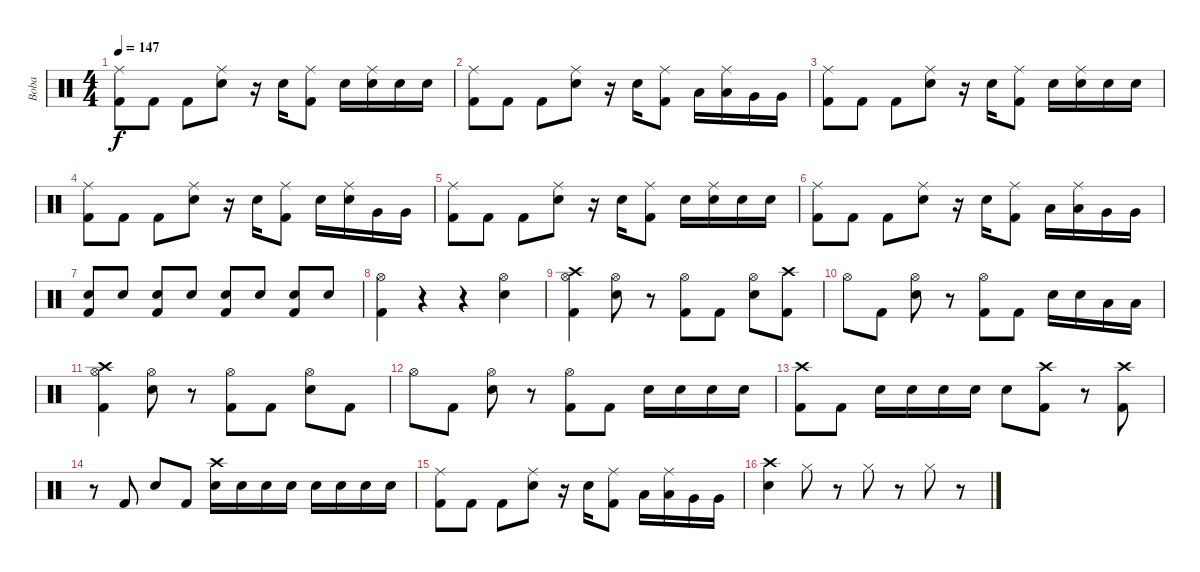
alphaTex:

\track ("Boba" "Boba") {instrument percussion}
\staff {score}
\articulation defaults
\ts (4 4)
\tempo 147
\clef neutral
\ks c
("Ride (middle)" "Kick (hit) 2").8{dy f} "Kick (hit) 2".8 "Kick (hit) 2".8 ("Ride (middle)" "Electric Snare (hit)").8 r.16 "Electric Snare (hit)".16 ("Ride (middle)" "Kick (hit) 2").8 "Electric Snare (hit)".16 ("Ride (middle)" "Electric Snare (hit)").16 "Electric Snare (hit)".16 "Electric Snare (hit)".16 |
("Ride (middle)" "Kick (hit) 2").8 "Kick (hit) 2".8 "Kick (hit) 2".8 ("Ride (middle)" "Electric Snare (hit)").8 r.16 "Electric Snare (hit)".16 ("Ride (middle)" "Kick (hit) 2").8 "Low Tom (hit)".16 ("Ride (middle)" "Low Tom (hit)").16 "Very Low Tom (hit)".16 "Very Low Tom (hit)".16 |
("Ride (middle)" "Kick (hit) 2").8 "Kick (hit) 2".8 "Kick (hit) 2".8 ("Ride (middle)" "Electric Snare (hit)").8 r.16 "Electric Snare (hit)".16 ("Ride (middle)" "Kick (hit) 2").8 "Electric Snare (hit)".16 ("Ride (middle)" "Electric Snare (hit)").16 "Electric Snare (hit)".16 "Electric Snare (hit)".16 |
("Ride (middle)" "Kick (hit) 2").8 "Kick (hit) 2".8 "Kick (hit) 2".8 ("Ride (middle)" "Electric Snare (hit)").8 r.16 "Electric Snare (hit)".16 ("Ride (middle)" "Kick (hit) 2").8 "Electric Snare (hit)".16 ("Ride (middle)" "Electric Snare (hit)").16 "Very Low Tom (hit)".16 "Very Low Tom (hit)".16 |
("Ride (middle)" "Kick (hit) 2").8 "Kick (hit) 2".8 "Kick (hit) 2".8 ("Ride (middle)" "Electric Snare (hit)").8 r.16 "Electric Snare (hit)".16 ("Ride (middle)" "Kick (hit) 2").8 "Electric Snare (hit)".16 ("Ride (middle)" "Electric Snare (hit)").16 "Electric Snare (hit)".16 "Electric Snare (hit)".16 |
("Ride (middle)" "Kick (hit) 2").8 "Kick (hit) 2".8 "Kick (hit) 2".8 ("Ride (middle)" "Electric Snare (hit)").8 r.16 "Electric Snare (hit)".16 ("Ride (middle)" "Kick (hit) 2").8 "Low Tom (hit)".16 ("Ride (middle)" "Low Tom (hit)").16 "Very Low Tom (hit)".16 "Very Low Tom (hit)".16 |
("Electric Snare (hit)" "Kick (hit) 2").8 "Electric Snare (hit)".8 ("Electric Snare (hit)" "Kick (hit) 2").8 "Electric Snare (hit)".8 ("Electric Snare (hit)" "Kick (hit) 2").8 "Electric Snare (hit)".8 ("Electric Snare (hit)" "Kick (hit) 2").8 "Electric Snare (hit)".8 |
("Hi-Hat (open)" "Kick (hit) 2").4 r.4 r.4 ("Hi-Hat (open)" "Electric Snare (hit)").4 |
("Crash high (hit)" "Hi-Hat (open)" "Kick (hit) 2").4 ("Hi-Hat (open)" "Electric Snare (hit)").8 r.8 ("Hi-Hat (open)" "Kick (hit) 2").8 "Kick (hit) 2".8 ("Hi-Hat (open)" "Electric Snare (hit)").8 ("Crash high (hit)" "Kick (hit) 2").8 |
"Hi-Hat (open)".8 "Kick (hit) 2".8 ("Hi-Hat (open)" "Electric Snare (hit)").8 r.8 ("Hi-Hat (open)" "Kick (hit) 2").8 "Kick (hit) 2".8 "Electric Snare (hit)".16 "Electric Snare (hit)".16 "Low Tom (hit)".16 "Low Tom (hit)".16 |
("Crash high (hit)" "Hi-Hat (open)" "Kick (hit) 2").4 ("Hi-Hat (open)" "Electric Snare (hit)").8 r.8 ("Hi-Hat (open)" "Kick (hit) 2").8 "Kick (hit) 2".8 ("Hi-Hat (open)" "Electric Snare (hit)").8 "Kick (hit) 2".8 |
"Hi-Hat (open)".8 "Kick (hit) 2".8 ("Hi-Hat (open)" "Electric Snare (hit)").8 r.8 ("Hi-Hat (open)" "Kick (hit) 2").8 "Kick (hit) 2".8 "Electric Snare (hit)".16 "Electric Snare (hit)".16 "Electric Snare (hit)".16 "Electric Snare (hit)".16 |
("Crash high (hit)" "Kick (hit) 2").8 "Kick (hit) 2".8 "Electric Snare (hit)".16 "Electric Snare (hit)".16 "Electric Snare (hit)".16 "Electric Snare (hit)".16 "Electric Snare (hit)".8 ("Crash high (hit)" "Kick (hit) 2").8 r.8 ("Crash high (hit)" "Kick (hit) 2").8 |
r.8 "Kick (hit) 2".8 "Electric Snare (hit)".8 "Kick (hit) 2".8 ("Crash high (hit)" "Electric Snare (hit)").16 "Electric Snare (hit)".16 "Electric Snare (hit)".16 "Electric Snare (hit)".16 "Electric Snare (hit)".16 "Electric Snare (hit)".16 "Electric Snare (hit)".16 "Electric Snare (hit)".16 |
("Ride (middle)" "Kick (hit) 2").8 "Kick (hit) 2".8 "Kick (hit) 2".8 ("Ride (middle)" "Electric Snare (hit)").8 r.16 "Electric Snare (hit)".16 ("Ride (middle)" "Kick (hit) 2").8 "Low Tom (hit)".16 ("Ride (middle)" "Low Tom (hit)").16 "Very Low Tom (hit)".16 "Very Low Tom (hit)".16 |
("Crash high (hit)" "Electric Snare (hit)").4 "Hi-Hat (closed)".8 r.8 "Hi-Hat (closed)".8 r.8 "Hi-Hat (closed)".8 r.8
